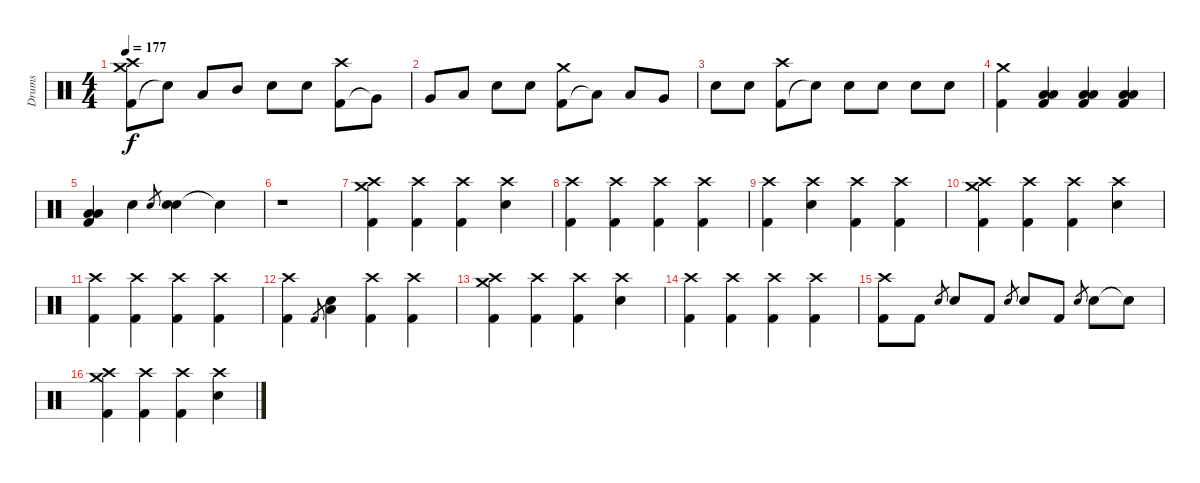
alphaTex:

\track ("Drums" "Drums") {instrument percussion}
\staff {score}
\articulation defaults
\ts (4 4)
\tempo 177
\clef neutral
\ks c
("Kick (hit) 2" "Crash medium (hit)" "Crash high (hit)").8{dy f} "Snare (hit)"{t}.8 "Low Tom (hit)".8 "Mid Tom (hit)".8 "Electric Snare (hit)".8 "Electric Snare (hit)".8 ("Kick (hit) 2" "Crash high (hit)").8 "Very Low Tom (hit)"{t}.8 |
"Very Low Tom (hit)".8 "Low Tom (hit)".8 "Electric Snare (hit)".8 "Electric Snare (hit)".8 ("Kick (hit) 2" "Crash medium (hit)").8 "Low Floor Tom (hit)"{t}.8 "Low Floor Tom (hit)".8 "Very Low Tom (hit)".8 |
"Electric Snare (hit)".8 "Electric Snare (hit)".8 ("Kick (hit) 2" "Crash high (hit)").8 "Electric Snare (hit)"{t}.8 "Electric Snare (hit)".8 "Electric Snare (hit)".8 "Electric Snare (hit)".8 "Electric Snare (hit)".8 |
("Kick (hit) 2" "Crash medium (hit)").4 ("Low Tom (hit)" "Low Floor Tom (hit)" "Kick (hit) 2").4 ("Low Tom (hit)" "Low Floor Tom (hit)" "Kick (hit) 2").4 ("Low Tom (hit)" "Low Floor Tom (hit)" "Kick (hit) 2").4 |
("Low Tom (hit)" "Low Floor Tom (hit)" "Kick (hit) 2").4 "Electric Snare (hit)".4 "Electric Snare (hit)".8{gr} ("Electric Snare (hit)" "Electric Snare (hit)").4 "Snare (hit)"{t}.4 |
r.1 |
("Kick (hit) 2" "Crash medium (hit)" "Crash high (hit)").4 ("Kick (hit) 2" "Crash high (hit)").4 ("Kick (hit) 2" "Crash high (hit)").4 ("Electric Snare (hit)" "Crash high (hit)").4 |
("Kick (hit) 2" "Crash high (hit)").4 ("Kick (hit) 2" "Crash high (hit)").4 ("Kick (hit) 2" "Crash high (hit)").4 ("Kick (hit) 2" "Crash high (hit)").4 |
("Kick (hit) 2" "Crash high (hit)").4 ("Electric Snare (hit)" "Crash high (hit)").4 ("Kick (hit) 2" "Crash high (hit)").4 ("Kick (hit) 2" "Crash high (hit)").4 |
("Kick (hit) 2" "Crash medium (hit)" "Crash high (hit)").4 ("Kick (hit) 2" "Crash high (hit)").4 ("Kick (hit) 2" "Crash high (hit)").4 ("Electric Snare (hit)" "Crash high (hit)").4 |
("Kick (hit) 2" "Crash high (hit)").4 ("Kick (hit) 2" "Crash high (hit)").4 ("Kick (hit) 2" "Crash high (hit)").4 ("Kick (hit) 2" "Crash high (hit)").4 |
("Kick (hit) 2" "Crash high (hit)").4 "Kick (hit) 2".8{gr} ("Electric Snare (hit)" "Low Floor Tom (hit)").4 ("Kick (hit) 2" "Crash high (hit)").4 ("Kick (hit) 2" "Crash high (hit)").4 |
("Kick (hit) 2" "Crash medium (hit)" "Crash high (hit)").4 ("Kick (hit) 2" "Crash high (hit)").4 ("Kick (hit) 2" "Crash high (hit)").4 ("Electric Snare (hit)" "Crash high (hit)").4 |
("Kick (hit) 2" "Crash high (hit)").4 ("Kick (hit) 2" "Crash high (hit)").4 ("Kick (hit) 2" "Crash high (hit)").4 ("Kick (hit) 2" "Crash high (hit)").4 |
("Kick (hit) 2" "Crash high (hit)").8 "Kick (hit) 2".8 "Electric Snare (hit)".8{gr} "Electric Snare (hit)".8 "Kick (hit) 2".8 "Electric Snare (hit)".8{gr} "Electric Snare (hit)".8 "Kick (hit) 2".8 "Electric Snare (hit)".8{gr} "Electric Snare (hit)".8 "Snare (hit)"{t}.8 |
("Kick (hit) 2" "Crash medium (hit)" "Crash high (hit)").4 ("Kick (hit) 2" "Crash high (hit)").4 ("Kick (hit) 2" "Crash high (hit)").4 ("Electric Snare (hit)" "Crash high (hit)").4
